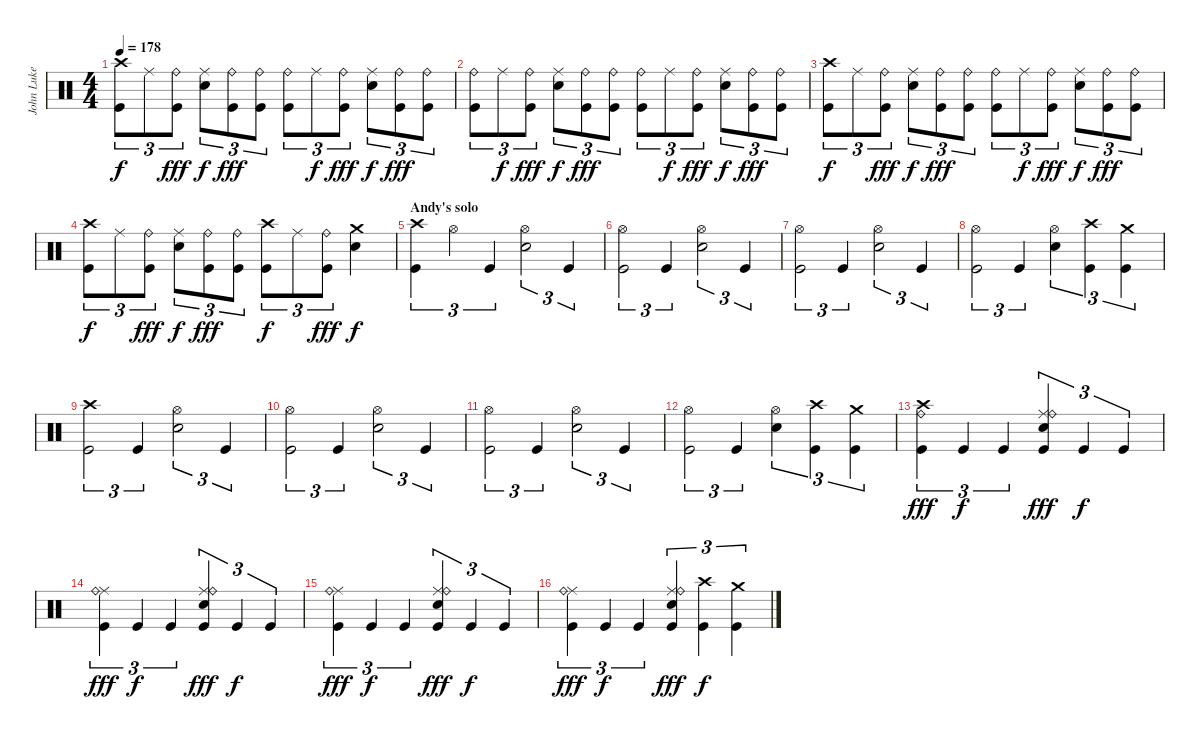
\track ("John Luke (Drums)" "John Luke ") {instrument percussion}
\staff {score}
\articulation defaults
\ts (4 4)
\tempo 178
\clef neutral
\ks c
("Crash high (hit)" "Kick (hit)").8{tu (3 2) dy f} "Ride (middle)".8{tu (3 2)} ("Ride (bell)" "Kick (hit)").8{tu (3 2) dy fff} ("Ride (middle)" "Electric Snare (hit)").8{tu (3 2) dy f} ("Ride (bell)" "Kick (hit)").8{tu (3 2) dy fff} ("Ride (bell)" "Kick (hit)").8{tu (3 2)} ("Ride (bell)" "Kick (hit)").8{tu (3 2)} "Ride (middle)".8{tu (3 2) dy f} ("Ride (bell)" "Kick (hit)").8{tu (3 2) dy fff} ("Ride (middle)" "Electric Snare (hit)").8{tu (3 2) dy f} ("Ride (bell)" "Kick (hit)").8{tu (3 2) dy fff} ("Ride (bell)" "Kick (hit)").8{tu (3 2)} |
("Ride (bell)" "Kick (hit)").8{tu (3 2)} "Ride (middle)".8{tu (3 2) dy f} ("Ride (bell)" "Kick (hit)").8{tu (3 2) dy fff} ("Ride (middle)" "Electric Snare (hit)").8{tu (3 2) dy f} ("Ride (bell)" "Kick (hit)").8{tu (3 2) dy fff} ("Ride (bell)" "Kick (hit)").8{tu (3 2)} ("Ride (bell)" "Kick (hit)").8{tu (3 2)} "Ride (middle)".8{tu (3 2) dy f} ("Ride (bell)" "Kick (hit)").8{tu (3 2) dy fff} ("Ride (middle)" "Electric Snare (hit)").8{tu (3 2) dy f} ("Ride (bell)" "Kick (hit)").8{tu (3 2) dy fff} ("Ride (bell)" "Kick (hit)").8{tu (3 2)} |
("Crash high (hit)" "Kick (hit)").8{tu (3 2) dy f} "Ride (middle)".8{tu (3 2)} ("Ride (bell)" "Kick (hit)").8{tu (3 2) dy fff} ("Ride (middle)" "Electric Snare (hit)").8{tu (3 2) dy f} ("Ride (bell)" "Kick (hit)").8{tu (3 2) dy fff} ("Ride (bell)" "Kick (hit)").8{tu (3 2)} ("Ride (bell)" "Kick (hit)").8{tu (3 2)} "Ride (middle)".8{tu (3 2) dy f} ("Ride (bell)" "Kick (hit)").8{tu (3 2) dy fff} ("Ride (middle)" "Electric Snare (hit)").8{tu (3 2) dy f} ("Ride (bell)" "Kick (hit)").8{tu (3 2) dy fff} ("Ride (bell)" "Kick (hit)").8{tu (3 2)} |
("Crash high (hit)" "Kick (hit)").8{tu (3 2) dy f} "Ride (middle)".8{tu (3 2)} ("Ride (bell)" "Kick (hit)").8{tu (3 2) dy fff} ("Ride (middle)" "Electric Snare (hit)").8{tu (3 2) dy f} ("Ride (bell)" "Kick (hit)").8{tu (3 2) dy fff} ("Ride (bell)" "Kick (hit)").8{tu (3 2)} ("Crash high (hit)" "Kick (hit)").8{tu (3 2) dy f} "Ride (middle)".8{tu (3 2)} ("Ride (bell)" "Kick (hit)").8{tu (3 2) dy fff} ("Crash medium (hit)" "Electric Snare (hit)").4{dy f} |
\section ("" "Andy's solo")
("Crash high (hit)" "Kick (hit)").4{tu (3 2)} "Hi-Hat (open)".4{tu (3 2)} "Kick (hit)".4{tu (3 2)} ("Hi-Hat (open)" "Electric Snare (hit)").2{tu (3 2)} "Kick (hit)".4{tu (3 2)} |
("Hi-Hat (open)" "Kick (hit)").2{tu (3 2)} "Kick (hit)".4{tu (3 2)} ("Hi-Hat (open)" "Electric Snare (hit)").2{tu (3 2)} "Kick (hit)".4{tu (3 2)} |
("Hi-Hat (open)" "Kick (hit)").2{tu (3 2)} "Kick (hit)".4{tu (3 2)} ("Hi-Hat (open)" "Electric Snare (hit)").2{tu (3 2)} "Kick (hit)".4{tu (3 2)} |
("Hi-Hat (open)" "Kick (hit)").2{tu (3 2)} "Kick (hit)".4{tu (3 2)} ("Hi-Hat (open)" "Electric Snare (hit)").4{tu (3 2)} ("Crash high (hit)" "Kick (hit)").4{tu (3 2)} ("Crash medium (hit)" "Kick (hit)").4{tu (3 2)} |
("Crash high (hit)" "Kick (hit)").2{tu (3 2)} "Kick (hit)".4{tu (3 2)} ("Hi-Hat (open)" "Electric Snare (hit)").2{tu (3 2)} "Kick (hit)".4{tu (3 2)} |
("Hi-Hat (open)" "Kick (hit)").2{tu (3 2)} "Kick (hit)".4{tu (3 2)} ("Hi-Hat (open)" "Electric Snare (hit)").2{tu (3 2)} "Kick (hit)".4{tu (3 2)} |
("Hi-Hat (open)" "Kick (hit)").2{tu (3 2)} "Kick (hit)".4{tu (3 2)} ("Hi-Hat (open)" "Electric Snare (hit)").2{tu (3 2)} "Kick (hit)".4{tu (3 2)} |
("Hi-Hat (open)" "Kick (hit)").2{tu (3 2)} "Kick (hit)".4{tu (3 2)} ("Hi-Hat (open)" "Electric Snare (hit)").4{tu (3 2)} ("Crash high (hit)" "Kick (hit)").4{tu (3 2)} ("Crash medium (hit)" "Kick (hit)").4{tu (3 2)} |
("Crash high (hit)" "Ride (bell)" "Kick (hit)").4{tu (3 2) dy fff} "Kick (hit)".4{tu (3 2) dy f} "Kick (hit)".4{tu (3 2)} ("Ride (middle)" "Ride (bell)" "Electric Snare (hit)" "Kick (hit)").4{tu (3 2) dy fff} "Kick (hit)".4{tu (3 2) dy f} "Kick (hit)".4{tu (3 2)} |
("Ride (middle)" "Ride (bell)" "Kick (hit)").4{tu (3 2) dy fff} "Kick (hit)".4{tu (3 2) dy f} "Kick (hit)".4{tu (3 2)} ("Ride (middle)" "Ride (bell)" "Electric Snare (hit)" "Kick (hit)").4{tu (3 2) dy fff} "Kick (hit)".4{tu (3 2) dy f} "Kick (hit)".4{tu (3 2)} |
("Ride (middle)" "Ride (bell)" "Kick (hit)").4{tu (3 2) dy fff} "Kick (hit)".4{tu (3 2) dy f} "Kick (hit)".4{tu (3 2)} ("Ride (middle)" "Ride (bell)" "Electric Snare (hit)" "Kick (hit)").4{tu (3 2) dy fff} "Kick (hit)".4{tu (3 2) dy f} "Kick (hit)".4{tu (3 2)} |
("Ride (middle)" "Ride (bell)" "Kick (hit)").4{tu (3 2) dy fff} "Kick (hit)".4{tu (3 2) dy f} "Kick (hit)".4{tu (3 2)} ("Ride (middle)" "Ride (bell)" "Electric Snare (hit)" "Kick (hit)").4{tu (3 2) dy fff} ("Crash high (hit)" "Kick (hit)").4{tu (3 2) dy f} ("Crash medium (hit)" "Kick (hit)").4{tu (3 2)}
